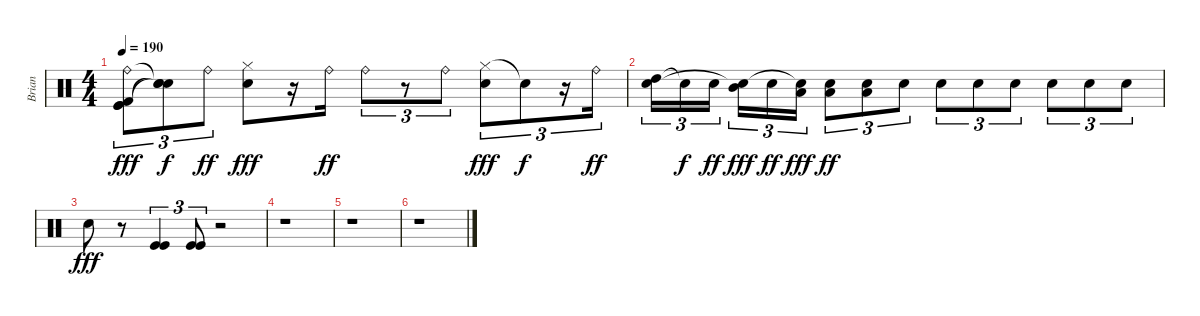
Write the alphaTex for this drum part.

\track ("Brian" "Brian") {instrument percussion}
\staff {score}
\articulation defaults
\ts (4 4)
\tempo 190
\clef neutral
\ks c
("Ride (bell)" "Kick (hit)" "Kick (hit) 2" "Kick (hit)").8{tu (3 2) dy fff} ("Snare (hit)"{t} "Snare (hit)"{t} "Snare (hit)"{t}).8{tu (3 2) dy f} "Ride (bell)".8{tu (3 2) dy ff} ("Hi-Hat (closed)" "Electric Snare (hit)").8{dy fff} r.16 "Ride (bell)".16{dy ff} "Ride (bell)".8{tu (3 2)} r.8{tu (3 2)} "Ride (bell)".8{tu (3 2)} ("Hi-Hat (closed)" "Electric Snare (hit)").8{tu (3 2) dy fff} "Snare (hit)"{t}.8{tu (3 2) dy f} r.16{tu (3 2)} "Ride (bell)".16{tu (3 2) dy ff} |
("High Tom (hit)" "Electric Snare (hit)").16{tu (3 2)} "Electric Snare (hit)"{t}.16{tu (3 2) dy f} "Electric Snare (hit)".16{tu (3 2) dy ff} ("Mid Tom (hit)" "Electric Snare (hit)"{t}).16{tu (3 2) dy fff} "Electric Snare (hit)".16{tu (3 2) dy ff} ("Low Tom (hit)" "Electric Snare (hit)"{t}).16{tu (3 2) dy fff} ("Low Tom (hit)" "Electric Snare (hit)").8{tu (3 2) dy ff} ("Low Tom (hit)" "Electric Snare (hit)").8{tu (3 2)} "Electric Snare (hit)".8{tu (3 2)} "Electric Snare (hit)".8{tu (3 2)} "Electric Snare (hit)".8{tu (3 2)} "Electric Snare (hit)".8{tu (3 2)} "Electric Snare (hit)".8{tu (3 2)} "Electric Snare (hit)".8{tu (3 2)} "Electric Snare (hit)".8{tu (3 2)} |
"Electric Snare (hit)".8{dy fff} r.8 ("Kick (hit)" "Kick (hit)").4{tu (3 2)} ("Kick (hit)" "Kick (hit)").8{tu (3 2)} r.2 |
r.1 |
r.1 |
r.1
